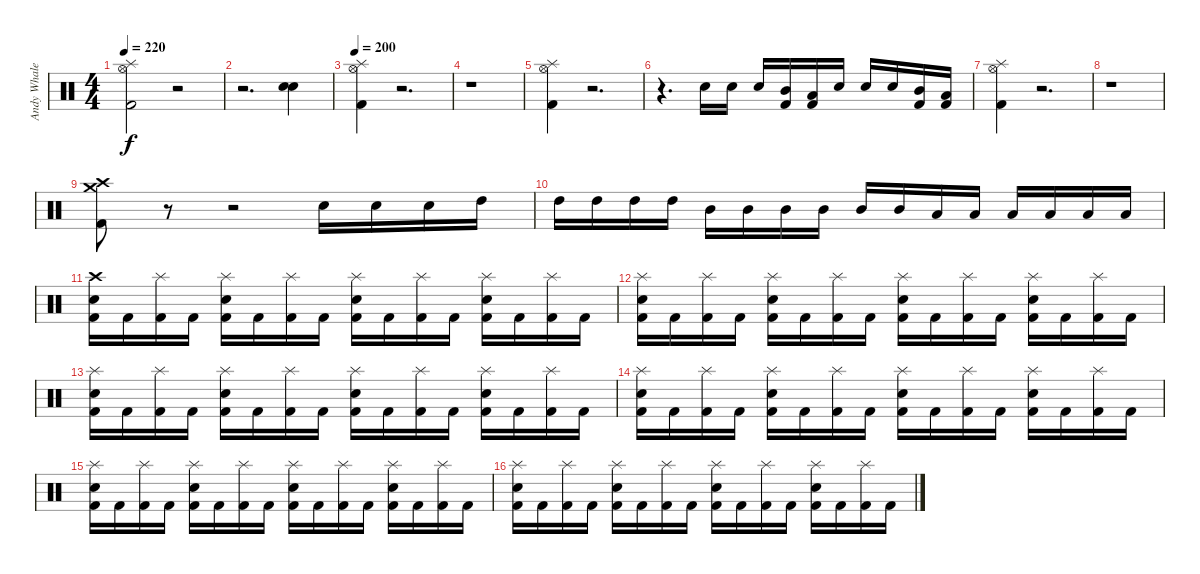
\track ("Andy Whale" "Andy Whale") {instrument percussion}
\staff {score}
\articulation defaults
\ts (4 4)
\tempo 220
\clef neutral
\ks c
("Splash (hit)" "Hi-Hat (open)" "Kick (hit) 2").2{dy f} r.2 |
r.2{d} ("Snare (hit) 2" "Snare (hit) 2").4 |
\tempo 200
("Splash (hit)" "Hi-Hat (open)" "Kick (hit) 2").4 r.2{d} |
r.1 |
("Splash (hit)" "Hi-Hat (open)" "Kick (hit) 2").4 r.2{d} |
r.4{d} "Snare (hit) 2".16 "Snare (hit) 2".16 "Snare (hit) 2".16 ("Mid Tom (hit)" "Kick (hit) 2").16 ("Low Tom (hit)" "Kick (hit) 2").16 "Snare (hit) 2".16 "Snare (hit) 2".16 "Snare (hit) 2".16 ("Mid Tom (hit)" "Kick (hit) 2").16 ("Low Tom (hit)" "Kick (hit) 2").16 |
("Splash (hit)" "Hi-Hat (open)" "Kick (hit) 2").4 r.2{d} |
r.1 |
("Crash medium (hit)" "Crash high (hit)" "Kick (hit) 2").8 r.8 r.2 "Snare (hit) 2".16 "Snare (hit) 2".16 "Snare (hit) 2".16 "High Tom (hit)".16 |
"High Tom (hit)".16 "High Tom (hit)".16 "High Tom (hit)".16 "High Tom (hit)".16 "Mid Tom (hit)".16 "Mid Tom (hit)".16 "Mid Tom (hit)".16 "Mid Tom (hit)".16 "Mid Tom (hit)".16 "Mid Tom (hit)".16 "Low Tom (hit)".16 "Low Tom (hit)".16 "Low Tom (hit)".16 "Low Tom (hit)".16 "Low Tom (hit)".16 "Low Tom (hit)".16 |
("Crash high (hit)" "Snare (hit) 2" "Kick (hit) 2").16 "Kick (hit) 2".16 ("Splash (hit)" "Kick (hit) 2").16 "Kick (hit) 2".16 ("Splash (hit)" "Snare (hit) 2" "Kick (hit) 2").16 "Kick (hit) 2".16 ("Splash (hit)" "Kick (hit) 2").16 "Kick (hit) 2".16 ("Splash (hit)" "Snare (hit) 2" "Kick (hit) 2").16 "Kick (hit) 2".16 ("Splash (hit)" "Kick (hit) 2").16 "Kick (hit) 2".16 ("Splash (hit)" "Snare (hit) 2" "Kick (hit) 2").16 "Kick (hit) 2".16 ("Splash (hit)" "Kick (hit) 2").16 "Kick (hit) 2".16 |
("Splash (hit)" "Snare (hit) 2" "Kick (hit) 2").16 "Kick (hit) 2".16 ("Splash (hit)" "Kick (hit) 2").16 "Kick (hit) 2".16 ("Splash (hit)" "Snare (hit) 2" "Kick (hit) 2").16 "Kick (hit) 2".16 ("Splash (hit)" "Kick (hit) 2").16 "Kick (hit) 2".16 ("Splash (hit)" "Snare (hit) 2" "Kick (hit) 2").16 "Kick (hit) 2".16 ("Splash (hit)" "Kick (hit) 2").16 "Kick (hit) 2".16 ("Splash (hit)" "Snare (hit) 2" "Kick (hit) 2").16 "Kick (hit) 2".16 ("Splash (hit)" "Kick (hit) 2").16 "Kick (hit) 2".16 |
("Splash (hit)" "Snare (hit) 2" "Kick (hit) 2").16 "Kick (hit) 2".16 ("Splash (hit)" "Kick (hit) 2").16 "Kick (hit) 2".16 ("Splash (hit)" "Snare (hit) 2" "Kick (hit) 2").16 "Kick (hit) 2".16 ("Splash (hit)" "Kick (hit) 2").16 "Kick (hit) 2".16 ("Splash (hit)" "Snare (hit) 2" "Kick (hit) 2").16 "Kick (hit) 2".16 ("Splash (hit)" "Kick (hit) 2").16 "Kick (hit) 2".16 ("Splash (hit)" "Snare (hit) 2" "Kick (hit) 2").16 "Kick (hit) 2".16 ("Splash (hit)" "Kick (hit) 2").16 "Kick (hit) 2".16 |
("Splash (hit)" "Snare (hit) 2" "Kick (hit) 2").16 "Kick (hit) 2".16 ("Splash (hit)" "Kick (hit) 2").16 "Kick (hit) 2".16 ("Splash (hit)" "Snare (hit) 2" "Kick (hit) 2").16 "Kick (hit) 2".16 ("Splash (hit)" "Kick (hit) 2").16 "Kick (hit) 2".16 ("Splash (hit)" "Snare (hit) 2" "Kick (hit) 2").16 "Kick (hit) 2".16 ("Splash (hit)" "Kick (hit) 2").16 "Kick (hit) 2".16 ("Splash (hit)" "Snare (hit) 2" "Kick (hit) 2").16 "Kick (hit) 2".16 ("Splash (hit)" "Kick (hit) 2").16 "Kick (hit) 2".16 |
("Splash (hit)" "Snare (hit) 2" "Kick (hit) 2").16 "Kick (hit) 2".16 ("Splash (hit)" "Kick (hit) 2").16 "Kick (hit) 2".16 ("Splash (hit)" "Snare (hit) 2" "Kick (hit) 2").16 "Kick (hit) 2".16 ("Splash (hit)" "Kick (hit) 2").16 "Kick (hit) 2".16 ("Splash (hit)" "Snare (hit) 2" "Kick (hit) 2").16 "Kick (hit) 2".16 ("Splash (hit)" "Kick (hit) 2").16 "Kick (hit) 2".16 ("Splash (hit)" "Snare (hit) 2" "Kick (hit) 2").16 "Kick (hit) 2".16 ("Splash (hit)" "Kick (hit) 2").16 "Kick (hit) 2".16 |
("Splash (hit)" "Snare (hit) 2" "Kick (hit) 2").16 "Kick (hit) 2".16 ("Splash (hit)" "Kick (hit) 2").16 "Kick (hit) 2".16 ("Splash (hit)" "Snare (hit) 2" "Kick (hit) 2").16 "Kick (hit) 2".16 ("Splash (hit)" "Kick (hit) 2").16 "Kick (hit) 2".16 ("Splash (hit)" "Snare (hit) 2" "Kick (hit) 2").16 "Kick (hit) 2".16 ("Splash (hit)" "Kick (hit) 2").16 "Kick (hit) 2".16 ("Splash (hit)" "Snare (hit) 2" "Kick (hit) 2").16 "Kick (hit) 2".16 ("Splash (hit)" "Kick (hit) 2").16 "Kick (hit) 2".16
